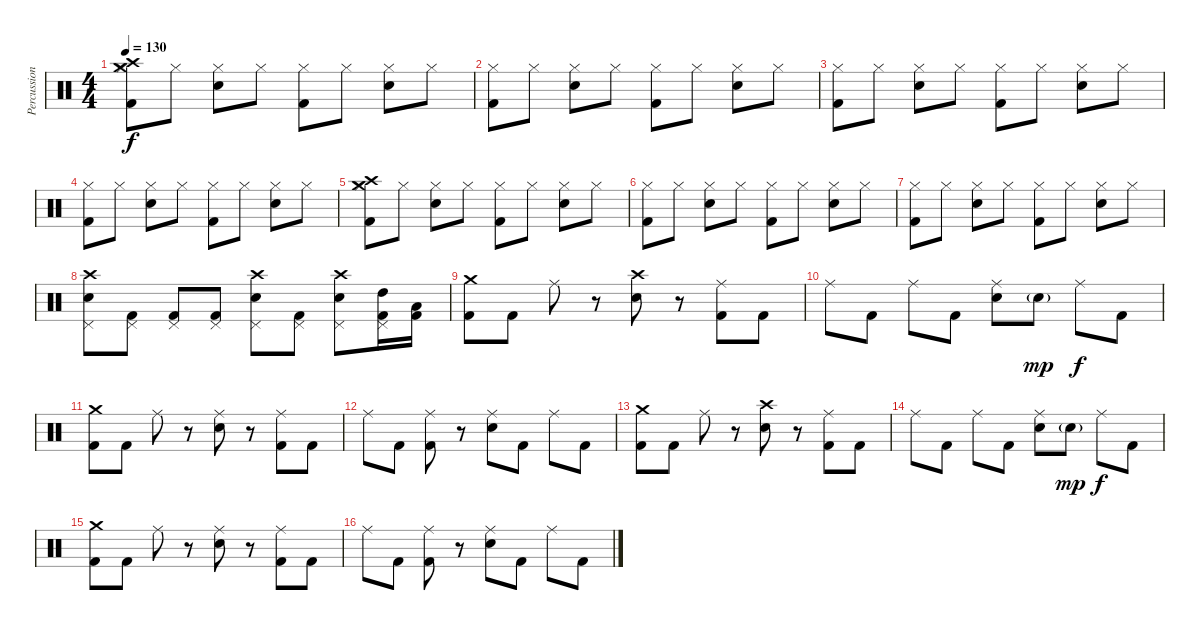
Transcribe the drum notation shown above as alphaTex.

\track ("Percussion" "Percussion") {instrument percussion}
\staff {score}
\articulation defaults
\ts (4 4)
\tempo 130
\clef neutral
\ks c
("Crash medium (hit)" "Crash high (hit)" "Hi-Hat (closed)" "Kick (hit) 2").8{dy f} "Hi-Hat (closed)".8 ("Hi-Hat (closed)" "Snare (hit) 2").8 "Hi-Hat (closed)".8 ("Hi-Hat (closed)" "Kick (hit) 2").8 "Hi-Hat (closed)".8 ("Hi-Hat (closed)" "Snare (hit) 2").8 "Hi-Hat (closed)".8 |
("Hi-Hat (closed)" "Kick (hit) 2").8 "Hi-Hat (closed)".8 ("Hi-Hat (closed)" "Snare (hit) 2").8 "Hi-Hat (closed)".8 ("Hi-Hat (closed)" "Kick (hit) 2").8 "Hi-Hat (closed)".8 ("Hi-Hat (closed)" "Snare (hit) 2").8 "Hi-Hat (closed)".8 |
("Hi-Hat (closed)" "Kick (hit) 2").8 "Hi-Hat (closed)".8 ("Hi-Hat (closed)" "Snare (hit) 2").8 "Hi-Hat (closed)".8 ("Hi-Hat (closed)" "Kick (hit) 2").8 "Hi-Hat (closed)".8 ("Hi-Hat (closed)" "Snare (hit) 2").8 "Hi-Hat (closed)".8 |
("Hi-Hat (closed)" "Kick (hit) 2").8 "Hi-Hat (closed)".8 ("Hi-Hat (closed)" "Snare (hit) 2").8 "Hi-Hat (closed)".8 ("Hi-Hat (closed)" "Kick (hit) 2").8 "Hi-Hat (closed)".8 ("Hi-Hat (closed)" "Snare (hit) 2").8 "Hi-Hat (closed)".8 |
("Crash medium (hit)" "Crash high (hit)" "Hi-Hat (closed)" "Kick (hit) 2").8 "Hi-Hat (closed)".8 ("Hi-Hat (closed)" "Snare (hit) 2").8 "Hi-Hat (closed)".8 ("Hi-Hat (closed)" "Kick (hit) 2").8 "Hi-Hat (closed)".8 ("Hi-Hat (closed)" "Snare (hit) 2").8 "Hi-Hat (closed)".8 |
("Hi-Hat (closed)" "Kick (hit) 2").8 "Hi-Hat (closed)".8 ("Hi-Hat (closed)" "Snare (hit) 2").8 "Hi-Hat (closed)".8 ("Hi-Hat (closed)" "Kick (hit) 2").8 "Hi-Hat (closed)".8 ("Hi-Hat (closed)" "Snare (hit) 2").8 "Hi-Hat (closed)".8 |
("Hi-Hat (closed)" "Kick (hit) 2").8 "Hi-Hat (closed)".8 ("Hi-Hat (closed)" "Snare (hit) 2").8 "Hi-Hat (closed)".8 ("Hi-Hat (closed)" "Kick (hit) 2").8 "Hi-Hat (closed)".8 ("Hi-Hat (closed)" "Snare (hit) 2").8 "Hi-Hat (closed)".8 |
("Crash high (hit)" "Pedal Hi-Hat (hit)" "Snare (hit) 2").8 ("Pedal Hi-Hat (hit)" "Kick (hit) 2").8 ("Pedal Hi-Hat (hit)" "Kick (hit) 2").8 ("Pedal Hi-Hat (hit)" "Kick (hit) 2").8 ("Crash high (hit)" "Pedal Hi-Hat (hit)" "Snare (hit) 2").8 ("Pedal Hi-Hat (hit)" "Kick (hit) 2").8 ("Crash high (hit)" "Pedal Hi-Hat (hit)" "Snare (hit) 2").8 ("Pedal Hi-Hat (hit)" "High Tom (hit)" "Kick (hit) 2").16 ("Low Tom (hit)" "Kick (hit) 2").16 |
("Crash medium (hit)" "Kick (hit) 2").8 "Kick (hit) 2".8 "Ride (middle)".8 r.8 ("Crash high (hit)" "Snare (hit) 2").8 r.8 ("Ride (middle)" "Kick (hit) 2").8 "Kick (hit) 2".8 |
"Ride (middle)".8 "Kick (hit) 2".8 "Ride (middle)".8 "Kick (hit) 2".8 ("Ride (middle)" "Snare (hit) 2").8 "Snare (hit) 2"{g}.8{dy mp} "Ride (middle)".8{dy f} "Kick (hit) 2".8 |
("Crash medium (hit)" "Kick (hit) 2").8 "Kick (hit) 2".8 "Ride (middle)".8 r.8 ("Ride (middle)" "Snare (hit) 2").8 r.8 ("Ride (middle)" "Kick (hit) 2").8 "Kick (hit) 2".8 |
"Ride (middle)".8 "Kick (hit) 2".8 ("Ride (middle)" "Kick (hit) 2").8 r.8 ("Ride (middle)" "Snare (hit) 2").8 "Kick (hit) 2".8 "Ride (middle)".8 "Kick (hit) 2".8 |
("Crash medium (hit)" "Kick (hit) 2").8 "Kick (hit) 2".8 "Ride (middle)".8 r.8 ("Crash high (hit)" "Snare (hit) 2").8 r.8 ("Ride (middle)" "Kick (hit) 2").8 "Kick (hit) 2".8 |
"Ride (middle)".8 "Kick (hit) 2".8 "Ride (middle)".8 "Kick (hit) 2".8 ("Ride (middle)" "Snare (hit) 2").8 "Snare (hit) 2"{g}.8{dy mp} "Ride (middle)".8{dy f} "Kick (hit) 2".8 |
("Crash medium (hit)" "Kick (hit) 2").8 "Kick (hit) 2".8 "Ride (middle)".8 r.8 ("Ride (middle)" "Snare (hit) 2").8 r.8 ("Ride (middle)" "Kick (hit) 2").8 "Kick (hit) 2".8 |
"Ride (middle)".8 "Kick (hit) 2".8 ("Ride (middle)" "Kick (hit) 2").8 r.8 ("Ride (middle)" "Snare (hit) 2").8 "Kick (hit) 2".8 "Ride (middle)".8 "Kick (hit) 2".8
